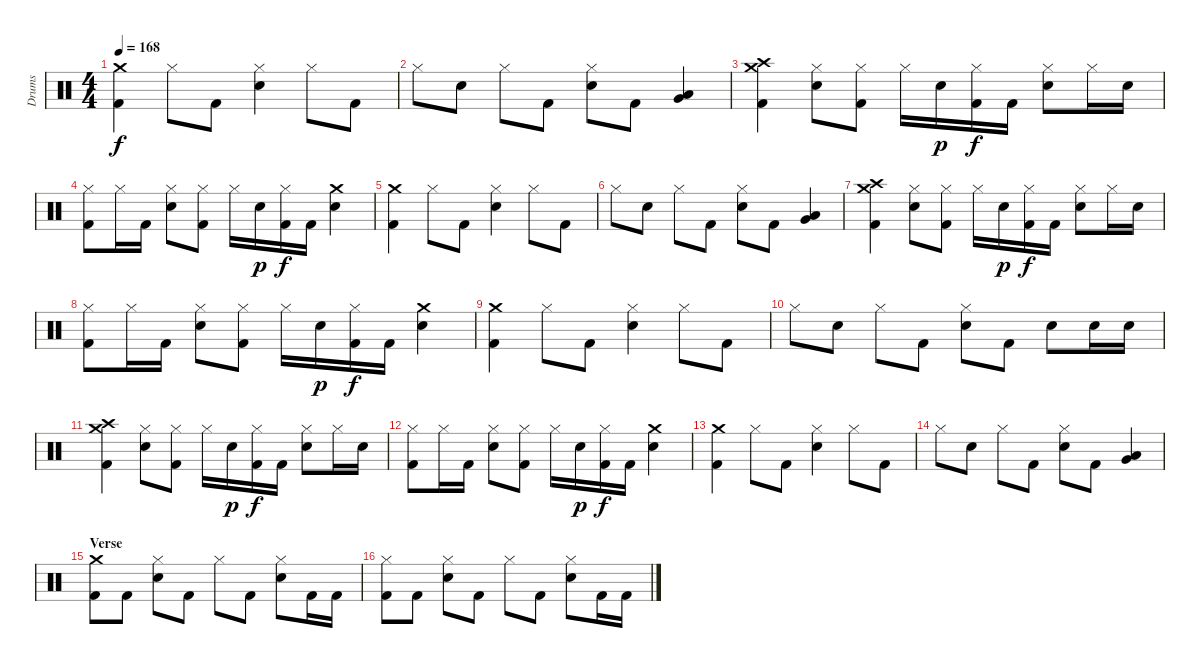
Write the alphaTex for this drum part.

\bracketExtendMode groupsimilarinstruments
\track ("Drumkit" "Drums") {solo instrument percussion}
\staff {score}
\articulation defaults
\ts (4 4)
\tempo 168
\clef neutral
\ks c
("Crash medium (hit)" "Kick (hit) 2").4{dy f} "Hi-Hat (closed)".8 "Kick (hit) 2".8 ("Hi-Hat (closed)" "Snare (hit) 2").4 "Hi-Hat (closed)".8 "Kick (hit) 2".8 |
"Hi-Hat (closed)".8 "Snare (hit) 2".8 "Hi-Hat (closed)".8 "Kick (hit) 2".8 ("Hi-Hat (closed)" "Snare (hit) 2").8 "Kick (hit) 2".8 ("Low Tom (hit)" "Very Low Tom (hit)").4 |
("Crash high (hit)" "Crash medium (hit)" "Kick (hit) 2").4 ("Hi-Hat (closed)" "Snare (hit) 2").8 ("Hi-Hat (closed)" "Kick (hit) 2").8 "Hi-Hat (closed)".16 "Snare (hit) 2".16{dy p} ("Hi-Hat (closed)" "Kick (hit) 2").16{dy f} "Kick (hit) 2".16 ("Hi-Hat (closed)" "Snare (hit) 2").8 "Hi-Hat (closed)".16 "Snare (hit) 2".16 |
("Hi-Hat (closed)" "Kick (hit) 2").8 "Hi-Hat (closed)".16 "Kick (hit) 2".16 ("Hi-Hat (closed)" "Snare (hit) 2").8 ("Hi-Hat (closed)" "Kick (hit) 2").8 "Hi-Hat (closed)".16 "Snare (hit) 2".16{dy p} ("Hi-Hat (closed)" "Kick (hit) 2").16{dy f} "Kick (hit) 2".16 ("Crash medium (hit)" "Snare (hit) 2").4 |
("Crash medium (hit)" "Kick (hit) 2").4 "Hi-Hat (closed)".8 "Kick (hit) 2".8 ("Hi-Hat (closed)" "Snare (hit) 2").4 "Hi-Hat (closed)".8 "Kick (hit) 2".8 |
"Hi-Hat (closed)".8 "Snare (hit) 2".8 "Hi-Hat (closed)".8 "Kick (hit) 2".8 ("Hi-Hat (closed)" "Snare (hit) 2").8 "Kick (hit) 2".8 ("Low Tom (hit)" "Very Low Tom (hit)").4 |
("Crash high (hit)" "Crash medium (hit)" "Kick (hit) 2").4 ("Hi-Hat (closed)" "Snare (hit) 2").8 ("Hi-Hat (closed)" "Kick (hit) 2").8 "Hi-Hat (closed)".16 "Snare (hit) 2".16{dy p} ("Hi-Hat (closed)" "Kick (hit) 2").16{dy f} "Kick (hit) 2".16 ("Hi-Hat (closed)" "Snare (hit) 2").8 "Hi-Hat (closed)".16 "Snare (hit) 2".16 |
("Hi-Hat (closed)" "Kick (hit) 2").8 "Hi-Hat (closed)".16 "Kick (hit) 2".16 ("Hi-Hat (closed)" "Snare (hit) 2").8 ("Hi-Hat (closed)" "Kick (hit) 2").8 "Hi-Hat (closed)".16 "Snare (hit) 2".16{dy p} ("Hi-Hat (closed)" "Kick (hit) 2").16{dy f} "Kick (hit) 2".16 ("Crash medium (hit)" "Snare (hit) 2").4 |
("Crash medium (hit)" "Kick (hit) 2").4 "Hi-Hat (closed)".8 "Kick (hit) 2".8 ("Hi-Hat (closed)" "Snare (hit) 2").4 "Hi-Hat (closed)".8 "Kick (hit) 2".8 |
"Hi-Hat (closed)".8 "Snare (hit) 2".8 "Hi-Hat (closed)".8 "Kick (hit) 2".8 ("Hi-Hat (closed)" "Snare (hit) 2").8 "Kick (hit) 2".8 "Snare (hit) 2".8 "Snare (hit) 2".16 "Snare (hit) 2".16 |
("Crash high (hit)" "Crash medium (hit)" "Kick (hit) 2").4 ("Hi-Hat (closed)" "Snare (hit) 2").8 ("Hi-Hat (closed)" "Kick (hit) 2").8 "Hi-Hat (closed)".16 "Snare (hit) 2".16{dy p} ("Hi-Hat (closed)" "Kick (hit) 2").16{dy f} "Kick (hit) 2".16 ("Hi-Hat (closed)" "Snare (hit) 2").8 "Hi-Hat (closed)".16 "Snare (hit) 2".16 |
("Hi-Hat (closed)" "Kick (hit) 2").8 "Hi-Hat (closed)".16 "Kick (hit) 2".16 ("Hi-Hat (closed)" "Snare (hit) 2").8 ("Hi-Hat (closed)" "Kick (hit) 2").8 "Hi-Hat (closed)".16 "Snare (hit) 2".16{dy p} ("Hi-Hat (closed)" "Kick (hit) 2").16{dy f} "Kick (hit) 2".16 ("Crash medium (hit)" "Snare (hit) 2").4 |
("Crash medium (hit)" "Kick (hit) 2").4 "Hi-Hat (closed)".8 "Kick (hit) 2".8 ("Hi-Hat (closed)" "Snare (hit) 2").4 "Hi-Hat (closed)".8 "Kick (hit) 2".8 |
"Hi-Hat (closed)".8 "Snare (hit) 2".8 "Hi-Hat (closed)".8 "Kick (hit) 2".8 ("Hi-Hat (closed)" "Snare (hit) 2").8 "Kick (hit) 2".8 ("Low Tom (hit)" "Very Low Tom (hit)").4 |
\section ("" "Verse")
("Crash medium (hit)" "Kick (hit) 2").8 "Kick (hit) 2".8 ("Hi-Hat (closed)" "Snare (hit) 2").8 "Kick (hit) 2".8 "Hi-Hat (closed)".8 "Kick (hit) 2".8 ("Hi-Hat (closed)" "Snare (hit) 2").8 "Kick (hit) 2".16 "Kick (hit) 2".16 |
("Hi-Hat (closed)" "Kick (hit) 2").8 "Kick (hit) 2".8 ("Hi-Hat (closed)" "Snare (hit) 2").8 "Kick (hit) 2".8 "Hi-Hat (closed)".8 "Kick (hit) 2".8 ("Hi-Hat (closed)" "Snare (hit) 2").8 "Kick (hit) 2".16 "Kick (hit) 2".16
